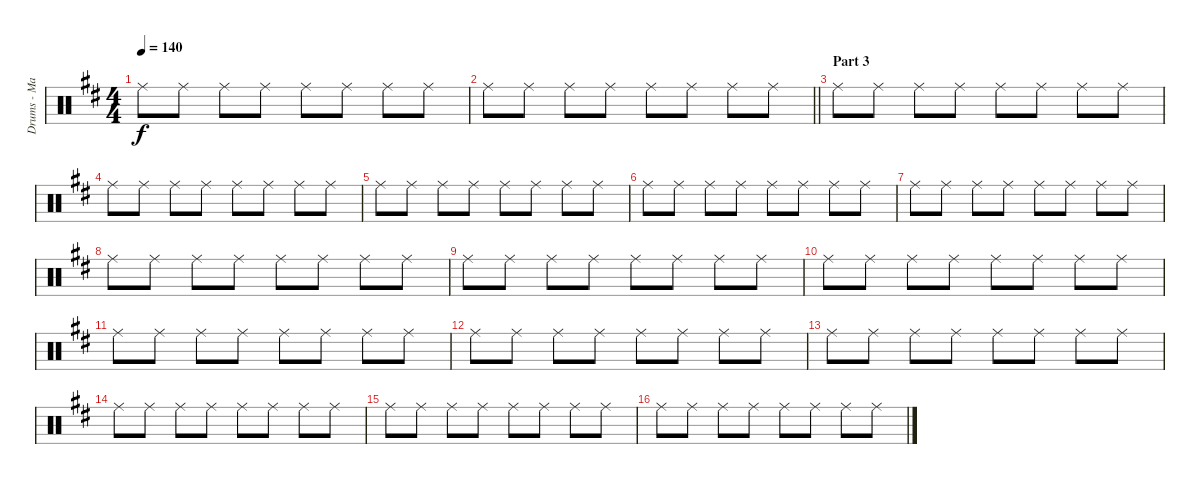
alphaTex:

\track ("Drums - Matt Helders" "Drums - Ma") {instrument percussion}
\staff {score}
\articulation defaults
\ts (4 4)
\tempo 140
\clef neutral
\ks d "Ride (middle)".8{dy f} "Ride (middle)".8 "Ride (middle)".8 "Ride (middle)".8 "Ride (middle)".8 "Ride (middle)".8 "Ride (middle)".8 "Ride (middle)".8
|
\barLineRight lightlight "Ride (middle)".8 "Ride (middle)".8 "Ride (middle)".8 "Ride (middle)".8 "Ride (middle)".8 "Ride (middle)".8 "Ride (middle)".8 "Ride (middle)".8
|
\section ("" "Part 3")
"Ride (middle)".8 "Ride (middle)".8 "Ride (middle)".8 "Ride (middle)".8 "Ride (middle)".8 "Ride (middle)".8 "Ride (middle)".8 "Ride (middle)".8 |
"Ride (middle)".8 "Ride (middle)".8 "Ride (middle)".8 "Ride (middle)".8 "Ride (middle)".8 "Ride (middle)".8 "Ride (middle)".8 "Ride (middle)".8 |
"Ride (middle)".8 "Ride (middle)".8 "Ride (middle)".8 "Ride (middle)".8 "Ride (middle)".8 "Ride (middle)".8 "Ride (middle)".8 "Ride (middle)".8 |
"Ride (middle)".8 "Ride (middle)".8 "Ride (middle)".8 "Ride (middle)".8 "Ride (middle)".8 "Ride (middle)".8 "Ride (middle)".8 "Ride (middle)".8 |
"Ride (middle)".8 "Ride (middle)".8 "Ride (middle)".8 "Ride (middle)".8 "Ride (middle)".8 "Ride (middle)".8 "Ride (middle)".8 "Ride (middle)".8 |
"Ride (middle)".8 "Ride (middle)".8 "Ride (middle)".8 "Ride (middle)".8 "Ride (middle)".8 "Ride (middle)".8 "Ride (middle)".8 "Ride (middle)".8 |
"Ride (middle)".8 "Ride (middle)".8 "Ride (middle)".8 "Ride (middle)".8 "Ride (middle)".8 "Ride (middle)".8 "Ride (middle)".8 "Ride (middle)".8 |
"Ride (middle)".8 "Ride (middle)".8 "Ride (middle)".8 "Ride (middle)".8 "Ride (middle)".8 "Ride (middle)".8 "Ride (middle)".8 "Ride (middle)".8 |
"Ride (middle)".8 "Ride (middle)".8 "Ride (middle)".8 "Ride (middle)".8 "Ride (middle)".8 "Ride (middle)".8 "Ride (middle)".8 "Ride (middle)".8 |
"Ride (middle)".8 "Ride (middle)".8 "Ride (middle)".8 "Ride (middle)".8 "Ride (middle)".8 "Ride (middle)".8 "Ride (middle)".8 "Ride (middle)".8 |
"Ride (middle)".8 "Ride (middle)".8 "Ride (middle)".8 "Ride (middle)".8 "Ride (middle)".8 "Ride (middle)".8 "Ride (middle)".8 "Ride (middle)".8 |
"Ride (middle)".8 "Ride (middle)".8 "Ride (middle)".8 "Ride (middle)".8 "Ride (middle)".8 "Ride (middle)".8 "Ride (middle)".8 "Ride (middle)".8 |
"Ride (middle)".8 "Ride (middle)".8 "Ride (middle)".8 "Ride (middle)".8 "Ride (middle)".8 "Ride (middle)".8 "Ride (middle)".8 "Ride (middle)".8 |
"Ride (middle)".8 "Ride (middle)".8 "Ride (middle)".8 "Ride (middle)".8 "Ride (middle)".8 "Ride (middle)".8 "Ride (middle)".8 "Ride (middle)".8
